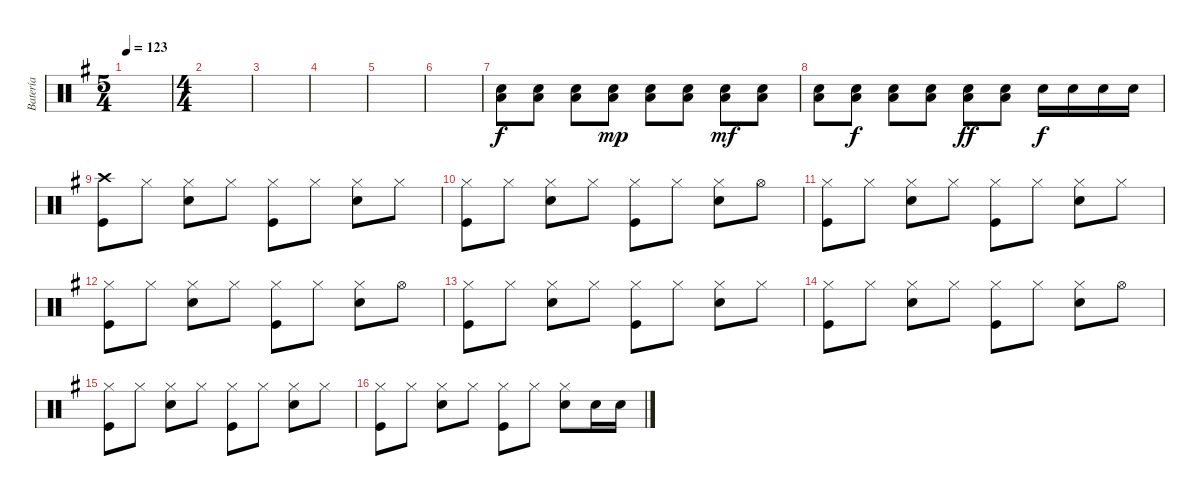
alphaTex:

\track ("Batería" "Batería") {instrument percussion}
\staff {score}
\articulation defaults
\ts (5 4)
\tempo 123
\clef neutral
\ks g
|
\ts (4 4)
|
|
|
|
|
("Snare (hit) 2" "Low Floor Tom (hit)").8 ("Snare (hit) 2" "Low Floor Tom (hit)").8 ("Snare (hit) 2" "Low Floor Tom (hit)").8 ("Snare (hit) 2" "Low Floor Tom (hit)").8{dy mp} ("Snare (hit) 2" "Low Floor Tom (hit)").8 ("Snare (hit) 2" "Low Floor Tom (hit)").8 ("Snare (hit) 2" "Low Floor Tom (hit)").8{dy mf} ("Snare (hit) 2" "Low Floor Tom (hit)").8 |
("Snare (hit) 2" "Low Floor Tom (hit)").8 ("Snare (hit) 2" "Low Floor Tom (hit)").8{dy f} ("Snare (hit) 2" "Low Floor Tom (hit)").8 ("Snare (hit) 2" "Low Floor Tom (hit)").8 ("Snare (hit) 2" "Low Floor Tom (hit)").8{dy ff} ("Snare (hit) 2" "Low Floor Tom (hit)").8 "Snare (hit) 2".16{dy f} "Snare (hit) 2".16 "Snare (hit) 2".16 "Snare (hit) 2".16 |
("Crash high (hit)" "Kick (hit)").8 "Hi-Hat (closed)".8 ("Hi-Hat (closed)" "Snare (hit) 2").8 "Hi-Hat (closed)".8 ("Hi-Hat (closed)" "Kick (hit)").8 "Hi-Hat (closed)".8 ("Hi-Hat (closed)" "Snare (hit) 2").8 "Hi-Hat (closed)".8 |
("Hi-Hat (closed)" "Kick (hit)").8 "Hi-Hat (closed)".8 ("Hi-Hat (closed)" "Snare (hit) 2").8 "Hi-Hat (closed)".8 ("Hi-Hat (closed)" "Kick (hit)").8 "Hi-Hat (closed)".8 ("Hi-Hat (closed)" "Snare (hit) 2").8 "Hi-Hat (open)".8 |
("Hi-Hat (closed)" "Kick (hit)").8 "Hi-Hat (closed)".8 ("Hi-Hat (closed)" "Snare (hit) 2").8 "Hi-Hat (closed)".8 ("Hi-Hat (closed)" "Kick (hit)").8 "Hi-Hat (closed)".8 ("Hi-Hat (closed)" "Snare (hit) 2").8 "Hi-Hat (closed)".8 |
("Hi-Hat (closed)" "Kick (hit)").8 "Hi-Hat (closed)".8 ("Hi-Hat (closed)" "Snare (hit) 2").8 "Hi-Hat (closed)".8 ("Hi-Hat (closed)" "Kick (hit)").8 "Hi-Hat (closed)".8 ("Hi-Hat (closed)" "Snare (hit) 2").8 "Hi-Hat (open)".8 |
("Hi-Hat (closed)" "Kick (hit)").8 "Hi-Hat (closed)".8 ("Hi-Hat (closed)" "Snare (hit) 2").8 "Hi-Hat (closed)".8 ("Hi-Hat (closed)" "Kick (hit)").8 "Hi-Hat (closed)".8 ("Hi-Hat (closed)" "Snare (hit) 2").8 "Hi-Hat (closed)".8 |
("Hi-Hat (closed)" "Kick (hit)").8 "Hi-Hat (closed)".8 ("Hi-Hat (closed)" "Snare (hit) 2").8 "Hi-Hat (closed)".8 ("Hi-Hat (closed)" "Kick (hit)").8 "Hi-Hat (closed)".8 ("Hi-Hat (closed)" "Snare (hit) 2").8 "Hi-Hat (open)".8 |
("Hi-Hat (closed)" "Kick (hit)").8 "Hi-Hat (closed)".8 ("Hi-Hat (closed)" "Snare (hit) 2").8 "Hi-Hat (closed)".8 ("Hi-Hat (closed)" "Kick (hit)").8 "Hi-Hat (closed)".8 ("Hi-Hat (closed)" "Snare (hit) 2").8 "Hi-Hat (closed)".8 |
("Hi-Hat (closed)" "Kick (hit)").8 "Hi-Hat (closed)".8 ("Hi-Hat (closed)" "Snare (hit) 2").8 "Hi-Hat (closed)".8 ("Hi-Hat (closed)" "Kick (hit)").8 "Hi-Hat (closed)".8 ("Hi-Hat (closed)" "Snare (hit) 2").8 "Snare (hit) 2".16 "Snare (hit) 2".16
